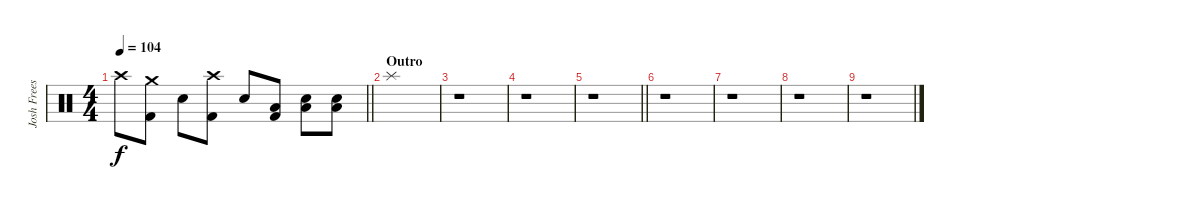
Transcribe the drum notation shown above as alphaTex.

\track ("Josh Freese (Studio Drummer)" "Josh Frees") {instrument percussion}
\staff {score}
\articulation defaults
\ts (4 4)
\tempo 104
\clef neutral
\barLineRight lightlight
\ks c "Crash high (hit)".8{dy f}
("Kick (hit) 2" "Crash medium (hit)").8 "Electric Snare (hit)".8 ("Crash high (hit)" "Kick (hit) 2").8 "Electric Snare (hit)".8 ("Kick (hit) 2" "Low Tom (hit)").8 ("Electric Snare (hit)" "Low Tom (hit)").8 ("Electric Snare (hit)" "Low Tom (hit)").8 |
\section ("" "Outro")
"Splash (hit)".1 |
r.1 |
r.1 |
\barLineRight lightlight
r.1 |
r.1 |
r.1 |
r.1 |
r.1
